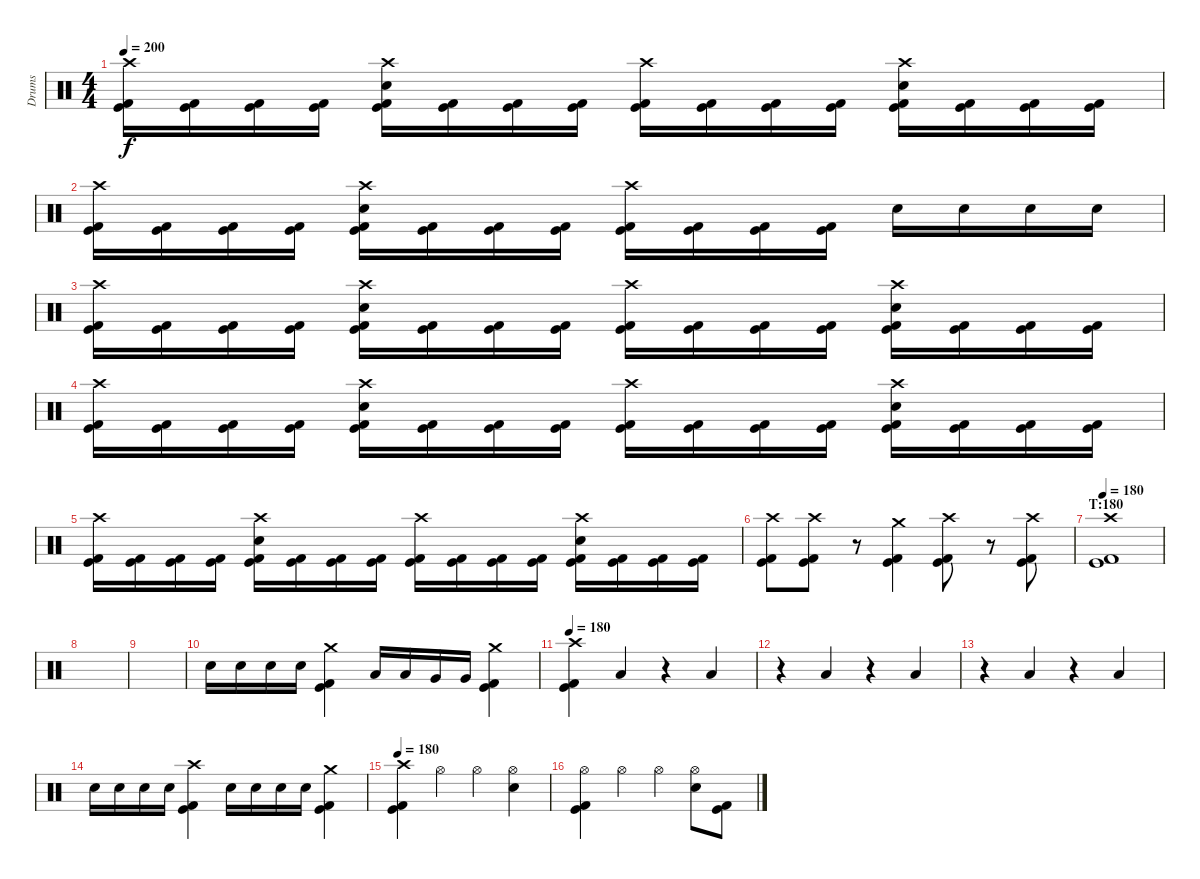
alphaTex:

\track ("Drums" "Drums") {instrument percussion}
\staff {score}
\articulation defaults
\ts (4 4)
\tempo 200
\clef neutral
\ks c
("Crash high (hit)" "Kick (hit)" "Kick (hit) 2").16{dy f} ("Kick (hit)" "Kick (hit) 2").16 ("Kick (hit)" "Kick (hit) 2").16 ("Kick (hit)" "Kick (hit) 2").16 ("Crash high (hit)" "Electric Snare (hit)" "Kick (hit)" "Kick (hit) 2").16 ("Kick (hit)" "Kick (hit) 2").16 ("Kick (hit)" "Kick (hit) 2").16 ("Kick (hit)" "Kick (hit) 2").16 ("Crash high (hit)" "Kick (hit)" "Kick (hit) 2").16 ("Kick (hit)" "Kick (hit) 2").16 ("Kick (hit)" "Kick (hit) 2").16 ("Kick (hit)" "Kick (hit) 2").16 ("Crash high (hit)" "Electric Snare (hit)" "Kick (hit)" "Kick (hit) 2").16 ("Kick (hit)" "Kick (hit) 2").16 ("Kick (hit)" "Kick (hit) 2").16 ("Kick (hit)" "Kick (hit) 2").16 |
("Crash high (hit)" "Kick (hit)" "Kick (hit) 2").16 ("Kick (hit)" "Kick (hit) 2").16 ("Kick (hit)" "Kick (hit) 2").16 ("Kick (hit)" "Kick (hit) 2").16 ("Crash high (hit)" "Electric Snare (hit)" "Kick (hit)" "Kick (hit) 2").16 ("Kick (hit)" "Kick (hit) 2").16 ("Kick (hit)" "Kick (hit) 2").16 ("Kick (hit)" "Kick (hit) 2").16 ("Crash high (hit)" "Kick (hit)" "Kick (hit) 2").16 ("Kick (hit)" "Kick (hit) 2").16 ("Kick (hit)" "Kick (hit) 2").16 ("Kick (hit)" "Kick (hit) 2").16 "Electric Snare (hit)".16 "Electric Snare (hit)".16 "Electric Snare (hit)".16 "Electric Snare (hit)".16 |
("Crash high (hit)" "Kick (hit)" "Kick (hit) 2").16 ("Kick (hit)" "Kick (hit) 2").16 ("Kick (hit)" "Kick (hit) 2").16 ("Kick (hit)" "Kick (hit) 2").16 ("Crash high (hit)" "Electric Snare (hit)" "Kick (hit)" "Kick (hit) 2").16 ("Kick (hit)" "Kick (hit) 2").16 ("Kick (hit)" "Kick (hit) 2").16 ("Kick (hit)" "Kick (hit) 2").16 ("Crash high (hit)" "Kick (hit)" "Kick (hit) 2").16 ("Kick (hit)" "Kick (hit) 2").16 ("Kick (hit)" "Kick (hit) 2").16 ("Kick (hit)" "Kick (hit) 2").16 ("Crash high (hit)" "Electric Snare (hit)" "Kick (hit)" "Kick (hit) 2").16 ("Kick (hit)" "Kick (hit) 2").16 ("Kick (hit)" "Kick (hit) 2").16 ("Kick (hit)" "Kick (hit) 2").16 |
("Crash high (hit)" "Kick (hit)" "Kick (hit) 2").16 ("Kick (hit)" "Kick (hit) 2").16 ("Kick (hit)" "Kick (hit) 2").16 ("Kick (hit)" "Kick (hit) 2").16 ("Crash high (hit)" "Electric Snare (hit)" "Kick (hit)" "Kick (hit) 2").16 ("Kick (hit)" "Kick (hit) 2").16 ("Kick (hit)" "Kick (hit) 2").16 ("Kick (hit)" "Kick (hit) 2").16 ("Crash high (hit)" "Kick (hit)" "Kick (hit) 2").16 ("Kick (hit)" "Kick (hit) 2").16 ("Kick (hit)" "Kick (hit) 2").16 ("Kick (hit)" "Kick (hit) 2").16 ("Crash high (hit)" "Electric Snare (hit)" "Kick (hit)" "Kick (hit) 2").16 ("Kick (hit)" "Kick (hit) 2").16 ("Kick (hit)" "Kick (hit) 2").16 ("Kick (hit)" "Kick (hit) 2").16 |
("Crash high (hit)" "Kick (hit)" "Kick (hit) 2").16 ("Kick (hit)" "Kick (hit) 2").16 ("Kick (hit)" "Kick (hit) 2").16 ("Kick (hit)" "Kick (hit) 2").16 ("Crash high (hit)" "Electric Snare (hit)" "Kick (hit)" "Kick (hit) 2").16 ("Kick (hit)" "Kick (hit) 2").16 ("Kick (hit)" "Kick (hit) 2").16 ("Kick (hit)" "Kick (hit) 2").16 ("Crash high (hit)" "Kick (hit)" "Kick (hit) 2").16 ("Kick (hit)" "Kick (hit) 2").16 ("Kick (hit)" "Kick (hit) 2").16 ("Kick (hit)" "Kick (hit) 2").16 ("Crash high (hit)" "Electric Snare (hit)" "Kick (hit)" "Kick (hit) 2").16 ("Kick (hit)" "Kick (hit) 2").16 ("Kick (hit)" "Kick (hit) 2").16 ("Kick (hit)" "Kick (hit) 2").16 |
("Crash high (hit)" "Kick (hit)" "Kick (hit) 2").8 ("Crash high (hit)" "Kick (hit)" "Kick (hit) 2").8 r.8 ("Crash medium (hit)" "Kick (hit)" "Kick (hit) 2").4 ("Crash high (hit)" "Kick (hit)" "Kick (hit) 2").8 r.8 ("Crash high (hit)" "Kick (hit)" "Kick (hit) 2").8 |
\section ("" "T:180")
\tempo 180
("Crash high (hit)" "Kick (hit)" "Kick (hit) 2").1 |
|
|
"Electric Snare (hit)".16 "Electric Snare (hit)".16 "Electric Snare (hit)".16 "Electric Snare (hit)".16 ("Crash medium (hit)" "Kick (hit)" "Kick (hit) 2").4 "Low Tom (hit)".16 "Low Tom (hit)".16 "Very Low Tom (hit)".16 "Very Low Tom (hit)".16 ("Crash medium (hit)" "Kick (hit)" "Kick (hit) 2").4 |
\tempo 180
("Crash high (hit)" "Kick (hit)" "Kick (hit) 2").4 "Low Tom (hit)".4 r.4 "Low Tom (hit)".4 |
r.4 "Low Tom (hit)".4 r.4 "Low Tom (hit)".4 |
r.4 "Low Tom (hit)".4 r.4 "Low Tom (hit)".4 |
"Electric Snare (hit)".16 "Electric Snare (hit)".16 "Electric Snare (hit)".16 "Electric Snare (hit)".16 ("Crash high (hit)" "Kick (hit)" "Kick (hit) 2").4 "Electric Snare (hit)".16 "Electric Snare (hit)".16 "Electric Snare (hit)".16 "Electric Snare (hit)".16 ("Crash medium (hit)" "Kick (hit)" "Kick (hit) 2").4 |
\tempo 180
("Crash high (hit)" "Kick (hit)" "Kick (hit) 2").4 "Hi-Hat (open)".4 "Hi-Hat (open)".4 ("Hi-Hat (open)" "Electric Snare (hit)").4 |
("Hi-Hat (open)" "Kick (hit)" "Kick (hit) 2").4 "Hi-Hat (open)".4 "Hi-Hat (open)".4 ("Hi-Hat (open)" "Electric Snare (hit)").8 ("Kick (hit)" "Kick (hit) 2").8
